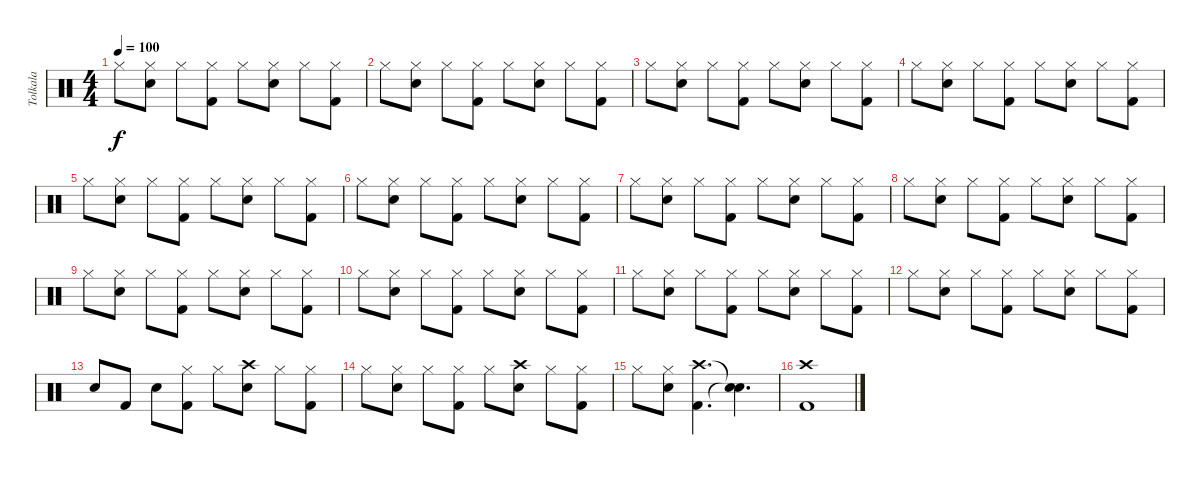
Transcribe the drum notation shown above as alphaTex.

\track ("Tolkala" "Tolkala") {instrument percussion}
\staff {score}
\articulation defaults
\ts (4 4)
\tempo 100
\clef neutral
\ks c "Hi-Hat (closed)".8{dy f}
("Hi-Hat (closed)" "Snare (hit) 2").8 "Hi-Hat (closed)".8 ("Hi-Hat (closed)" "Kick (hit) 2").8 "Hi-Hat (closed)".8 ("Hi-Hat (closed)" "Snare (hit) 2").8 "Hi-Hat (closed)".8 ("Hi-Hat (closed)" "Kick (hit) 2").8 |
"Hi-Hat (closed)".8 ("Hi-Hat (closed)" "Snare (hit) 2").8 "Hi-Hat (closed)".8 ("Hi-Hat (closed)" "Kick (hit) 2").8 "Hi-Hat (closed)".8 ("Hi-Hat (closed)" "Snare (hit) 2").8 "Hi-Hat (closed)".8 ("Hi-Hat (closed)" "Kick (hit) 2").8 |
"Hi-Hat (closed)".8 ("Hi-Hat (closed)" "Snare (hit) 2").8 "Hi-Hat (closed)".8 ("Hi-Hat (closed)" "Kick (hit) 2").8 "Hi-Hat (closed)".8 ("Hi-Hat (closed)" "Snare (hit) 2").8 "Hi-Hat (closed)".8 ("Hi-Hat (closed)" "Kick (hit) 2").8 |
"Hi-Hat (closed)".8 ("Hi-Hat (closed)" "Snare (hit) 2").8 "Hi-Hat (closed)".8 ("Hi-Hat (closed)" "Kick (hit) 2").8 "Hi-Hat (closed)".8 ("Hi-Hat (closed)" "Snare (hit) 2").8 "Hi-Hat (closed)".8 ("Hi-Hat (closed)" "Kick (hit) 2").8 |
"Hi-Hat (closed)".8 ("Hi-Hat (closed)" "Snare (hit) 2").8 "Hi-Hat (closed)".8 ("Hi-Hat (closed)" "Kick (hit) 2").8 "Hi-Hat (closed)".8 ("Hi-Hat (closed)" "Snare (hit) 2").8 "Hi-Hat (closed)".8 ("Hi-Hat (closed)" "Kick (hit) 2").8 |
"Hi-Hat (closed)".8 ("Hi-Hat (closed)" "Snare (hit) 2").8 "Hi-Hat (closed)".8 ("Hi-Hat (closed)" "Kick (hit) 2").8 "Hi-Hat (closed)".8 ("Hi-Hat (closed)" "Snare (hit) 2").8 "Hi-Hat (closed)".8 ("Hi-Hat (closed)" "Kick (hit) 2").8 |
"Hi-Hat (closed)".8 ("Hi-Hat (closed)" "Snare (hit) 2").8 "Hi-Hat (closed)".8 ("Hi-Hat (closed)" "Kick (hit) 2").8 "Hi-Hat (closed)".8 ("Hi-Hat (closed)" "Snare (hit) 2").8 "Hi-Hat (closed)".8 ("Hi-Hat (closed)" "Kick (hit) 2").8 |
"Hi-Hat (closed)".8 ("Hi-Hat (closed)" "Snare (hit) 2").8 "Hi-Hat (closed)".8 ("Hi-Hat (closed)" "Kick (hit) 2").8 "Hi-Hat (closed)".8 ("Hi-Hat (closed)" "Snare (hit) 2").8 "Hi-Hat (closed)".8 ("Hi-Hat (closed)" "Kick (hit) 2").8 |
"Hi-Hat (closed)".8 ("Hi-Hat (closed)" "Snare (hit) 2").8 "Hi-Hat (closed)".8 ("Hi-Hat (closed)" "Kick (hit) 2").8 "Hi-Hat (closed)".8 ("Hi-Hat (closed)" "Snare (hit) 2").8 "Hi-Hat (closed)".8 ("Hi-Hat (closed)" "Kick (hit) 2").8 |
"Hi-Hat (closed)".8 ("Hi-Hat (closed)" "Snare (hit) 2").8 "Hi-Hat (closed)".8 ("Hi-Hat (closed)" "Kick (hit) 2").8 "Hi-Hat (closed)".8 ("Hi-Hat (closed)" "Snare (hit) 2").8 "Hi-Hat (closed)".8 ("Hi-Hat (closed)" "Kick (hit) 2").8 |
"Hi-Hat (closed)".8 ("Hi-Hat (closed)" "Snare (hit) 2").8 "Hi-Hat (closed)".8 ("Hi-Hat (closed)" "Kick (hit) 2").8 "Hi-Hat (closed)".8 ("Hi-Hat (closed)" "Snare (hit) 2").8 "Hi-Hat (closed)".8 ("Hi-Hat (closed)" "Kick (hit) 2").8 |
"Hi-Hat (closed)".8 ("Hi-Hat (closed)" "Snare (hit) 2").8 "Hi-Hat (closed)".8 ("Hi-Hat (closed)" "Kick (hit) 2").8 "Hi-Hat (closed)".8 ("Hi-Hat (closed)" "Snare (hit) 2").8 "Hi-Hat (closed)".8 ("Hi-Hat (closed)" "Kick (hit) 2").8 |
"Snare (hit) 2".8 "Kick (hit) 2".8 "Snare (hit) 2".8 ("Hi-Hat (closed)" "Kick (hit) 2").8 "Hi-Hat (closed)".8 ("Crash high (hit)" "Snare (hit) 2").8 "Hi-Hat (closed)".8 ("Hi-Hat (closed)" "Kick (hit) 2").8 |
"Hi-Hat (closed)".8 ("Hi-Hat (closed)" "Snare (hit) 2").8 "Hi-Hat (closed)".8 ("Hi-Hat (closed)" "Kick (hit) 2").8 "Hi-Hat (closed)".8 ("Crash high (hit)" "Snare (hit) 2").8 "Hi-Hat (closed)".8 ("Hi-Hat (closed)" "Kick (hit) 2").8 |
"Hi-Hat (closed)".8 ("Hi-Hat (closed)" "Snare (hit) 2").8 ("Crash high (hit)" "Kick (hit) 2").4{d} ("Snare (hit)"{t} "Snare (hit)"{t}).4{d} |
("Crash high (hit)" "Kick (hit) 2").1
